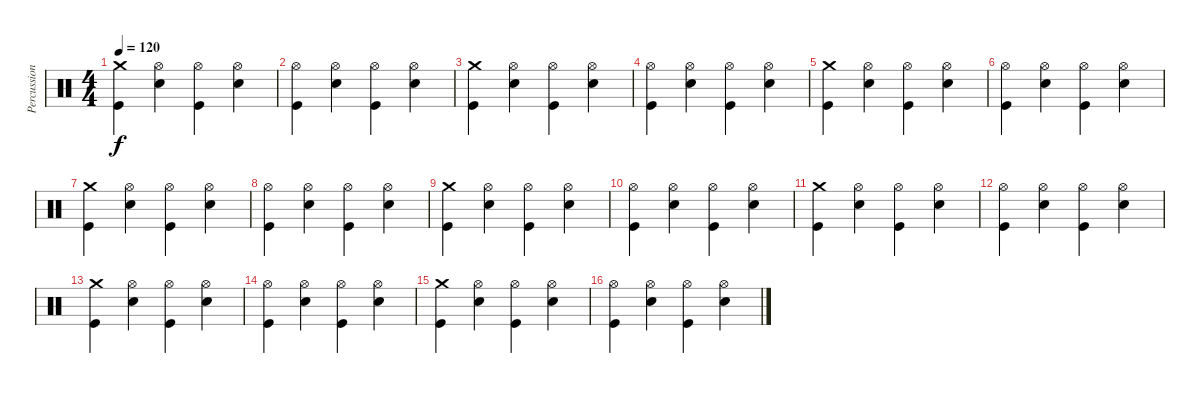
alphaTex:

\track ("Percussion" "Percussion") {instrument percussion}
\staff {score}
\articulation defaults
\ts (4 4)
\tempo 120
\clef neutral
\ks c
("Crash medium (hit)" "Kick (hit)").4{dy f} ("Hi-Hat (open)" "Snare (hit) 2").4 ("Hi-Hat (open)" "Kick (hit)").4 ("Hi-Hat (open)" "Snare (hit) 2").4 |
("Hi-Hat (open)" "Kick (hit)").4 ("Hi-Hat (open)" "Snare (hit) 2").4 ("Hi-Hat (open)" "Kick (hit)").4 ("Hi-Hat (open)" "Snare (hit) 2").4 |
("Crash medium (hit)" "Kick (hit)").4 ("Hi-Hat (open)" "Snare (hit) 2").4 ("Hi-Hat (open)" "Kick (hit)").4 ("Hi-Hat (open)" "Snare (hit) 2").4 |
("Hi-Hat (open)" "Kick (hit)").4 ("Hi-Hat (open)" "Snare (hit) 2").4 ("Hi-Hat (open)" "Kick (hit)").4 ("Hi-Hat (open)" "Snare (hit) 2").4 |
("Crash medium (hit)" "Kick (hit)").4 ("Hi-Hat (open)" "Snare (hit) 2").4 ("Hi-Hat (open)" "Kick (hit)").4 ("Hi-Hat (open)" "Snare (hit) 2").4 |
("Hi-Hat (open)" "Kick (hit)").4 ("Hi-Hat (open)" "Snare (hit) 2").4 ("Hi-Hat (open)" "Kick (hit)").4 ("Hi-Hat (open)" "Snare (hit) 2").4 |
("Crash medium (hit)" "Kick (hit)").4 ("Hi-Hat (open)" "Snare (hit) 2").4 ("Hi-Hat (open)" "Kick (hit)").4 ("Hi-Hat (open)" "Snare (hit) 2").4 |
("Hi-Hat (open)" "Kick (hit)").4 ("Hi-Hat (open)" "Snare (hit) 2").4 ("Hi-Hat (open)" "Kick (hit)").4 ("Hi-Hat (open)" "Snare (hit) 2").4 |
("Crash medium (hit)" "Kick (hit)").4 ("Hi-Hat (open)" "Snare (hit) 2").4 ("Hi-Hat (open)" "Kick (hit)").4 ("Hi-Hat (open)" "Snare (hit) 2").4 |
("Hi-Hat (open)" "Kick (hit)").4 ("Hi-Hat (open)" "Snare (hit) 2").4 ("Hi-Hat (open)" "Kick (hit)").4 ("Hi-Hat (open)" "Snare (hit) 2").4 |
("Crash medium (hit)" "Kick (hit)").4 ("Hi-Hat (open)" "Snare (hit) 2").4 ("Hi-Hat (open)" "Kick (hit)").4 ("Hi-Hat (open)" "Snare (hit) 2").4 |
("Hi-Hat (open)" "Kick (hit)").4 ("Hi-Hat (open)" "Snare (hit) 2").4 ("Hi-Hat (open)" "Kick (hit)").4 ("Hi-Hat (open)" "Snare (hit) 2").4 |
("Crash medium (hit)" "Kick (hit)").4 ("Hi-Hat (open)" "Snare (hit) 2").4 ("Hi-Hat (open)" "Kick (hit)").4 ("Hi-Hat (open)" "Snare (hit) 2").4 |
("Hi-Hat (open)" "Kick (hit)").4 ("Hi-Hat (open)" "Snare (hit) 2").4 ("Hi-Hat (open)" "Kick (hit)").4 ("Hi-Hat (open)" "Snare (hit) 2").4 |
("Crash medium (hit)" "Kick (hit)").4 ("Hi-Hat (open)" "Snare (hit) 2").4 ("Hi-Hat (open)" "Kick (hit)").4 ("Hi-Hat (open)" "Snare (hit) 2").4 |
("Hi-Hat (open)" "Kick (hit)").4 ("Hi-Hat (open)" "Snare (hit) 2").4 ("Hi-Hat (open)" "Kick (hit)").4 ("Hi-Hat (open)" "Snare (hit) 2").4
